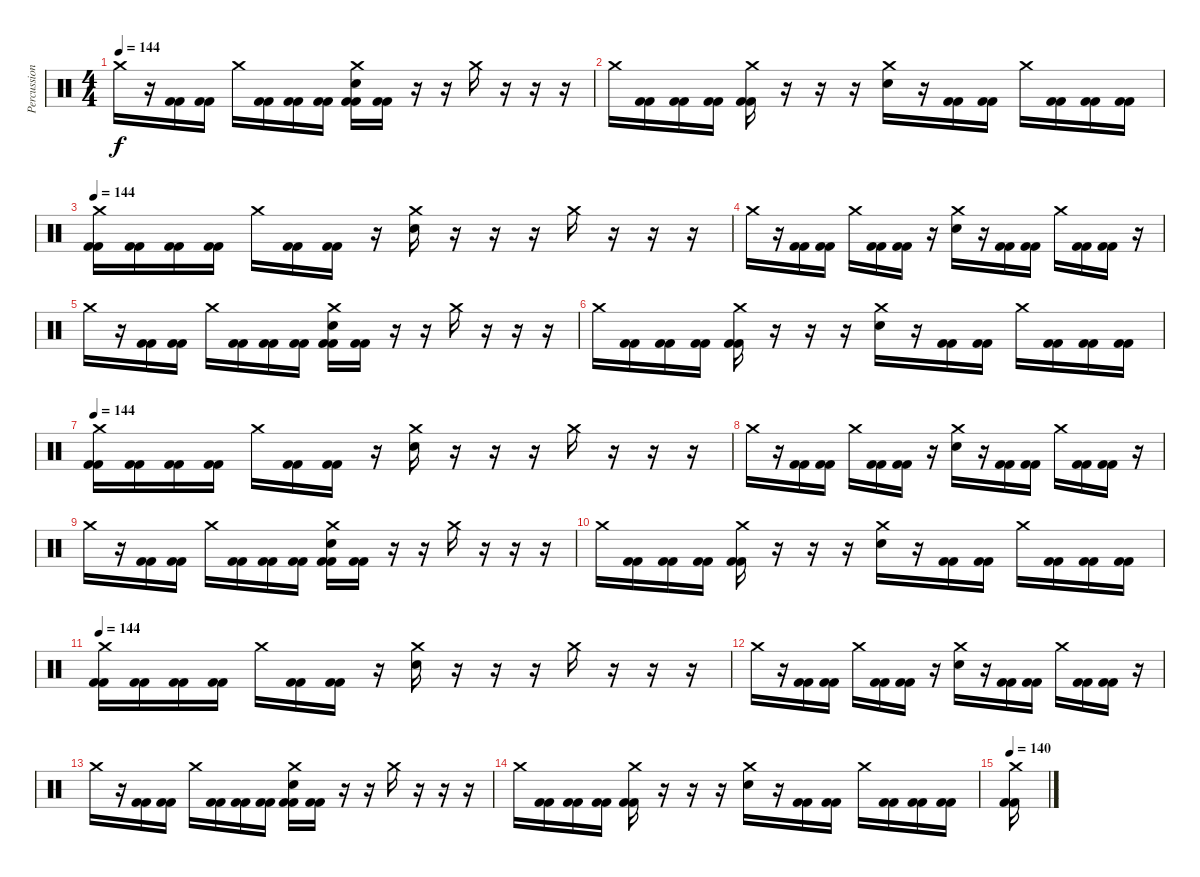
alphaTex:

\track ("Percussion" "Percussion") {instrument percussion}
\staff {score}
\articulation defaults
\ts (4 4)
\tempo 144
\clef neutral
\ks c "Crash medium (hit)".16{dy f}
r.16 ("Kick (hit) 2" "Kick (hit) 2").16 ("Kick (hit) 2" "Kick (hit) 2").16 "Crash medium (hit)".16 ("Kick (hit) 2" "Kick (hit) 2").16 ("Kick (hit) 2" "Kick (hit) 2").16 ("Kick (hit) 2" "Kick (hit) 2").16 ("Crash medium (hit)" "Electric Snare (hit)" "Kick (hit) 2" "Kick (hit) 2").16 ("Kick (hit) 2" "Kick (hit) 2").16 r.16 r.16 "Crash medium (hit)".16 r.16 r.16 r.16 |
"Crash medium (hit)".16 ("Kick (hit) 2" "Kick (hit) 2").16 ("Kick (hit) 2" "Kick (hit) 2").16 ("Kick (hit) 2" "Kick (hit) 2").16 ("Crash medium (hit)" "Kick (hit) 2" "Kick (hit) 2").16 r.16 r.16 r.16 ("Crash medium (hit)" "Electric Snare (hit)").16 r.16 ("Kick (hit) 2" "Kick (hit) 2").16 ("Kick (hit) 2" "Kick (hit) 2").16 "Crash medium (hit)".16 ("Kick (hit) 2" "Kick (hit) 2").16 ("Kick (hit) 2" "Kick (hit) 2").16 ("Kick (hit) 2" "Kick (hit) 2").16 |
\tempo 140
\tempo 144
("Crash medium (hit)" "Kick (hit) 2" "Kick (hit) 2").16 ("Kick (hit) 2" "Kick (hit) 2").16 ("Kick (hit) 2" "Kick (hit) 2").16 ("Kick (hit) 2" "Kick (hit) 2").16 "Crash medium (hit)".16 ("Kick (hit) 2" "Kick (hit) 2").16 ("Kick (hit) 2" "Kick (hit) 2").16 r.16 ("Crash medium (hit)" "Electric Snare (hit)").16 r.16 r.16 r.16 "Crash medium (hit)".16 r.16 r.16 r.16 |
"Crash medium (hit)".16 r.16 ("Kick (hit) 2" "Kick (hit) 2").16 ("Kick (hit) 2" "Kick (hit) 2").16 "Crash medium (hit)".16 ("Kick (hit) 2" "Kick (hit) 2").16 ("Kick (hit) 2" "Kick (hit) 2").16 r.16 ("Crash medium (hit)" "Electric Snare (hit)").16 r.16 ("Kick (hit) 2" "Kick (hit) 2").16 ("Kick (hit) 2" "Kick (hit) 2").16 "Crash medium (hit)".16 ("Kick (hit) 2" "Kick (hit) 2").16 ("Kick (hit) 2" "Kick (hit) 2").16 r.16 |
"Crash medium (hit)".16 r.16 ("Kick (hit) 2" "Kick (hit) 2").16 ("Kick (hit) 2" "Kick (hit) 2").16 "Crash medium (hit)".16 ("Kick (hit) 2" "Kick (hit) 2").16 ("Kick (hit) 2" "Kick (hit) 2").16 ("Kick (hit) 2" "Kick (hit) 2").16 ("Crash medium (hit)" "Electric Snare (hit)" "Kick (hit) 2" "Kick (hit) 2").16 ("Kick (hit) 2" "Kick (hit) 2").16 r.16 r.16 "Crash medium (hit)".16 r.16 r.16 r.16 |
"Crash medium (hit)".16 ("Kick (hit) 2" "Kick (hit) 2").16 ("Kick (hit) 2" "Kick (hit) 2").16 ("Kick (hit) 2" "Kick (hit) 2").16 ("Crash medium (hit)" "Kick (hit) 2" "Kick (hit) 2").16 r.16 r.16 r.16 ("Crash medium (hit)" "Electric Snare (hit)").16 r.16 ("Kick (hit) 2" "Kick (hit) 2").16 ("Kick (hit) 2" "Kick (hit) 2").16 "Crash medium (hit)".16 ("Kick (hit) 2" "Kick (hit) 2").16 ("Kick (hit) 2" "Kick (hit) 2").16 ("Kick (hit) 2" "Kick (hit) 2").16 |
\tempo 140
\tempo 144
("Crash medium (hit)" "Kick (hit) 2" "Kick (hit) 2").16 ("Kick (hit) 2" "Kick (hit) 2").16 ("Kick (hit) 2" "Kick (hit) 2").16 ("Kick (hit) 2" "Kick (hit) 2").16 "Crash medium (hit)".16 ("Kick (hit) 2" "Kick (hit) 2").16 ("Kick (hit) 2" "Kick (hit) 2").16 r.16 ("Crash medium (hit)" "Electric Snare (hit)").16 r.16 r.16 r.16 "Crash medium (hit)".16 r.16 r.16 r.16 |
"Crash medium (hit)".16 r.16 ("Kick (hit) 2" "Kick (hit) 2").16 ("Kick (hit) 2" "Kick (hit) 2").16 "Crash medium (hit)".16 ("Kick (hit) 2" "Kick (hit) 2").16 ("Kick (hit) 2" "Kick (hit) 2").16 r.16 ("Crash medium (hit)" "Electric Snare (hit)").16 r.16 ("Kick (hit) 2" "Kick (hit) 2").16 ("Kick (hit) 2" "Kick (hit) 2").16 "Crash medium (hit)".16 ("Kick (hit) 2" "Kick (hit) 2").16 ("Kick (hit) 2" "Kick (hit) 2").16 r.16 |
"Crash medium (hit)".16 r.16 ("Kick (hit) 2" "Kick (hit) 2").16 ("Kick (hit) 2" "Kick (hit) 2").16 "Crash medium (hit)".16 ("Kick (hit) 2" "Kick (hit) 2").16 ("Kick (hit) 2" "Kick (hit) 2").16 ("Kick (hit) 2" "Kick (hit) 2").16 ("Crash medium (hit)" "Electric Snare (hit)" "Kick (hit) 2" "Kick (hit) 2").16 ("Kick (hit) 2" "Kick (hit) 2").16 r.16 r.16 "Crash medium (hit)".16 r.16 r.16 r.16 |
"Crash medium (hit)".16 ("Kick (hit) 2" "Kick (hit) 2").16 ("Kick (hit) 2" "Kick (hit) 2").16 ("Kick (hit) 2" "Kick (hit) 2").16 ("Crash medium (hit)" "Kick (hit) 2" "Kick (hit) 2").16 r.16 r.16 r.16 ("Crash medium (hit)" "Electric Snare (hit)").16 r.16 ("Kick (hit) 2" "Kick (hit) 2").16 ("Kick (hit) 2" "Kick (hit) 2").16 "Crash medium (hit)".16 ("Kick (hit) 2" "Kick (hit) 2").16 ("Kick (hit) 2" "Kick (hit) 2").16 ("Kick (hit) 2" "Kick (hit) 2").16 |
\tempo 140
\tempo 144
("Crash medium (hit)" "Kick (hit) 2" "Kick (hit) 2").16 ("Kick (hit) 2" "Kick (hit) 2").16 ("Kick (hit) 2" "Kick (hit) 2").16 ("Kick (hit) 2" "Kick (hit) 2").16 "Crash medium (hit)".16 ("Kick (hit) 2" "Kick (hit) 2").16 ("Kick (hit) 2" "Kick (hit) 2").16 r.16 ("Crash medium (hit)" "Electric Snare (hit)").16 r.16 r.16 r.16 "Crash medium (hit)".16 r.16 r.16 r.16 |
"Crash medium (hit)".16 r.16 ("Kick (hit) 2" "Kick (hit) 2").16 ("Kick (hit) 2" "Kick (hit) 2").16 "Crash medium (hit)".16 ("Kick (hit) 2" "Kick (hit) 2").16 ("Kick (hit) 2" "Kick (hit) 2").16 r.16 ("Crash medium (hit)" "Electric Snare (hit)").16 r.16 ("Kick (hit) 2" "Kick (hit) 2").16 ("Kick (hit) 2" "Kick (hit) 2").16 "Crash medium (hit)".16 ("Kick (hit) 2" "Kick (hit) 2").16 ("Kick (hit) 2" "Kick (hit) 2").16 r.16 |
"Crash medium (hit)".16 r.16 ("Kick (hit) 2" "Kick (hit) 2").16 ("Kick (hit) 2" "Kick (hit) 2").16 "Crash medium (hit)".16 ("Kick (hit) 2" "Kick (hit) 2").16 ("Kick (hit) 2" "Kick (hit) 2").16 ("Kick (hit) 2" "Kick (hit) 2").16 ("Crash medium (hit)" "Electric Snare (hit)" "Kick (hit) 2" "Kick (hit) 2").16 ("Kick (hit) 2" "Kick (hit) 2").16 r.16 r.16 "Crash medium (hit)".16 r.16 r.16 r.16 |
"Crash medium (hit)".16 ("Kick (hit) 2" "Kick (hit) 2").16 ("Kick (hit) 2" "Kick (hit) 2").16 ("Kick (hit) 2" "Kick (hit) 2").16 ("Crash medium (hit)" "Kick (hit) 2" "Kick (hit) 2").16 r.16 r.16 r.16 ("Crash medium (hit)" "Electric Snare (hit)").16 r.16 ("Kick (hit) 2" "Kick (hit) 2").16 ("Kick (hit) 2" "Kick (hit) 2").16 "Crash medium (hit)".16 ("Kick (hit) 2" "Kick (hit) 2").16 ("Kick (hit) 2" "Kick (hit) 2").16 ("Kick (hit) 2" "Kick (hit) 2").16 |
\tempo 140
("Crash medium (hit)" "Kick (hit) 2" "Kick (hit) 2").16
